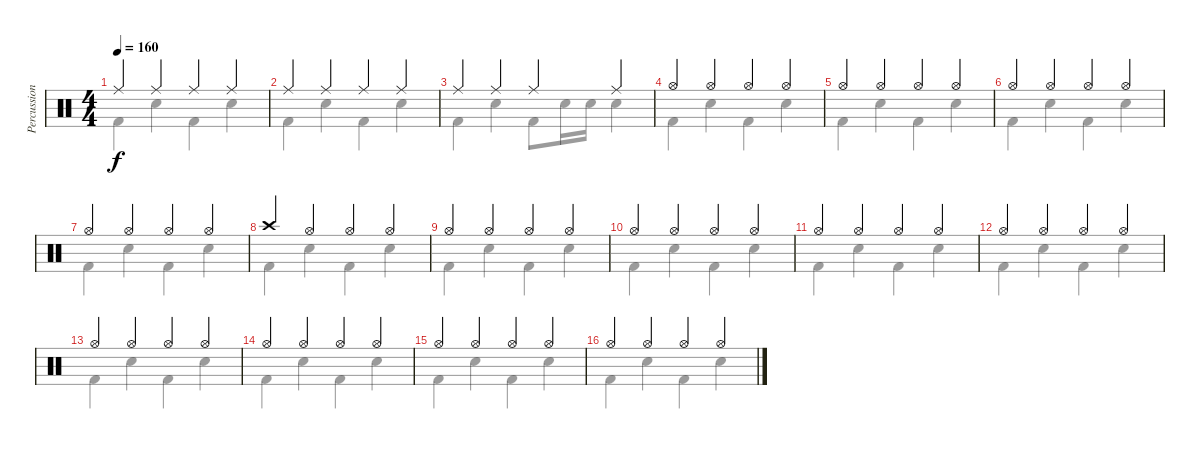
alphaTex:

\track ("Percussion" "Percussion") {instrument percussion}
\staff {score}
\articulation defaults
\voice
\ts (4 4)
\tempo 160
\clef neutral
\ks c "Ride (middle)".4{dy f} "Ride (middle)".4 "Ride (middle)".4 "Ride (middle)".4
|
"Ride (middle)".4 "Ride (middle)".4 "Ride (middle)".4 "Ride (middle)".4 |
"Ride (middle)".4 "Ride (middle)".4 "Ride (middle)".4 "Ride (middle)".4 |
"Hi-Hat (open)".4 "Hi-Hat (open)".4 "Hi-Hat (open)".4 "Hi-Hat (open)".4 |
"Hi-Hat (open)".4 "Hi-Hat (open)".4 "Hi-Hat (open)".4 "Hi-Hat (open)".4 |
"Hi-Hat (open)".4 "Hi-Hat (open)".4 "Hi-Hat (open)".4 "Hi-Hat (open)".4 |
"Hi-Hat (open)".4 "Hi-Hat (open)".4 "Hi-Hat (open)".4 "Hi-Hat (open)".4 |
"Crash high (hit)".4 "Hi-Hat (open)".4 "Hi-Hat (open)".4 "Hi-Hat (open)".4 |
"Hi-Hat (open)".4 "Hi-Hat (open)".4 "Hi-Hat (open)".4 "Hi-Hat (open)".4 |
"Hi-Hat (open)".4 "Hi-Hat (open)".4 "Hi-Hat (open)".4 "Hi-Hat (open)".4 |
"Hi-Hat (open)".4 "Hi-Hat (open)".4 "Hi-Hat (open)".4 "Hi-Hat (open)".4 |
"Hi-Hat (open)".4 "Hi-Hat (open)".4 "Hi-Hat (open)".4 "Hi-Hat (open)".4 |
"Hi-Hat (open)".4 "Hi-Hat (open)".4 "Hi-Hat (open)".4 "Hi-Hat (open)".4 |
"Hi-Hat (open)".4 "Hi-Hat (open)".4 "Hi-Hat (open)".4 "Hi-Hat (open)".4 |
"Hi-Hat (open)".4 "Hi-Hat (open)".4 "Hi-Hat (open)".4 "Hi-Hat (open)".4 |
"Hi-Hat (open)".4 "Hi-Hat (open)".4 "Hi-Hat (open)".4 "Hi-Hat (open)".4
\voice
\clef neutral
\ottava regular
\simile none
\ks c "Kick (hit) 2".4{dy f} "Snare (hit) 2".4 "Kick (hit) 2".4 "Snare (hit) 2".4
|
"Kick (hit) 2".4 "Snare (hit) 2".4 "Kick (hit) 2".4 "Snare (hit) 2".4 |
"Kick (hit) 2".4 "Snare (hit) 2".4 "Kick (hit) 2".8 "Snare (hit) 2".16 "Snare (hit) 2".16 "Snare (hit) 2".4 |
"Kick (hit) 2".4 "Snare (hit) 2".4 "Kick (hit) 2".4 "Snare (hit) 2".4 |
"Kick (hit) 2".4 "Snare (hit) 2".4 "Kick (hit) 2".4 "Snare (hit) 2".4 |
"Kick (hit) 2".4 "Snare (hit) 2".4 "Kick (hit) 2".4 "Snare (hit) 2".4 |
"Kick (hit) 2".4 "Snare (hit) 2".4 "Kick (hit) 2".4 "Snare (hit) 2".4 |
"Kick (hit) 2".4 "Snare (hit) 2".4 "Kick (hit) 2".4 "Snare (hit) 2".4 |
"Kick (hit) 2".4 "Snare (hit) 2".4 "Kick (hit) 2".4 "Snare (hit) 2".4 |
"Kick (hit) 2".4 "Snare (hit) 2".4 "Kick (hit) 2".4 "Snare (hit) 2".4 |
"Kick (hit) 2".4 "Snare (hit) 2".4 "Kick (hit) 2".4 "Snare (hit) 2".4 |
"Kick (hit) 2".4 "Snare (hit) 2".4 "Kick (hit) 2".4 "Snare (hit) 2".4 |
"Kick (hit) 2".4 "Snare (hit) 2".4 "Kick (hit) 2".4 "Snare (hit) 2".4 |
"Kick (hit) 2".4 "Snare (hit) 2".4 "Kick (hit) 2".4 "Snare (hit) 2".4 |
"Kick (hit) 2".4 "Snare (hit) 2".4 "Kick (hit) 2".4 "Snare (hit) 2".4 |
"Kick (hit) 2".4 "Snare (hit) 2".4 "Kick (hit) 2".4 "Snare (hit) 2".4
